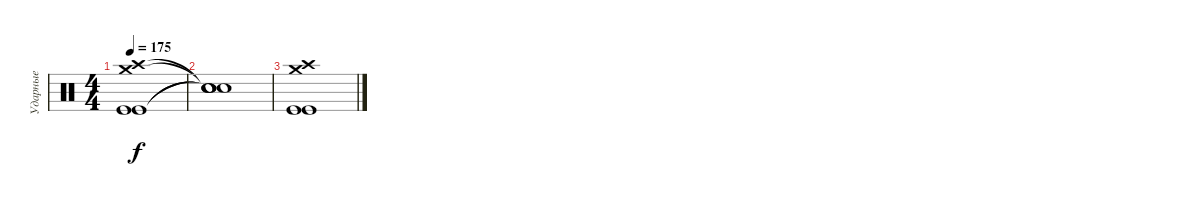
\track ("Ударные" "Ударные") {instrument percussion}
\staff {score}
\articulation defaults
\ts (4 4)
\tempo 175
\clef neutral
\ks c
("Crash high (hit)" "Crash medium (hit)" "Kick (hit)" "Kick (hit)").1{dy f} |
("Snare (hit)"{t} "Snare (hit)"{t} "Snare (hit)"{t} "Snare (hit)"{t}).1 |
("Crash high (hit)" "Crash medium (hit)" "Kick (hit)" "Kick (hit)").1
